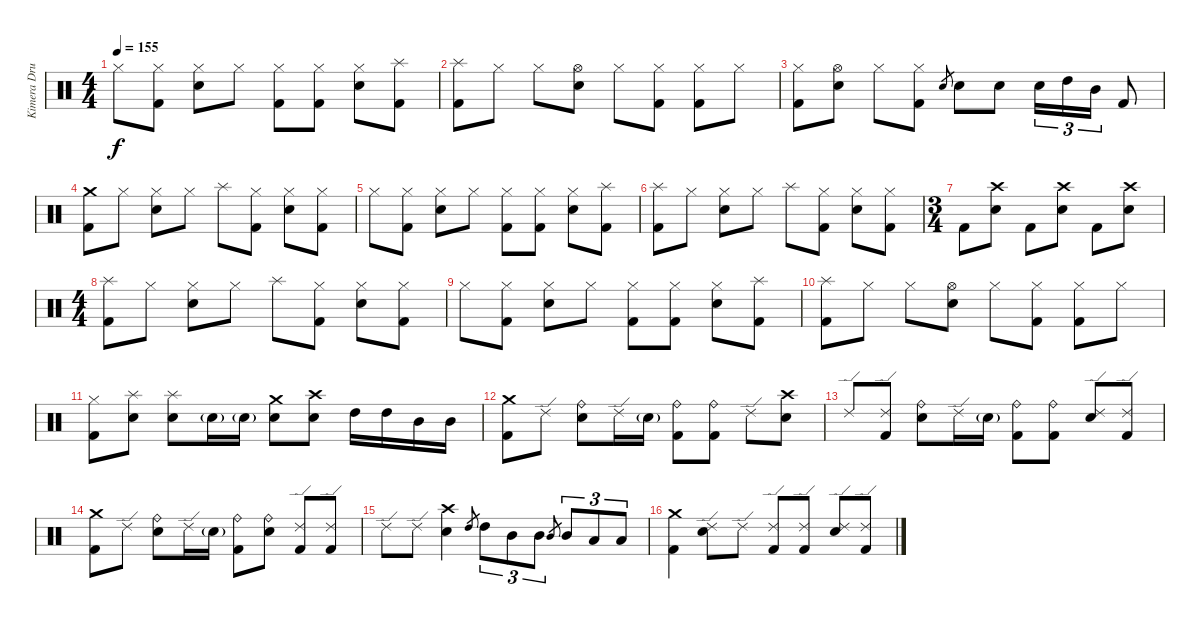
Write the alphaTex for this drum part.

\track ("Kimera Drummer" "Kimera Dru") {instrument percussion}
\staff {score}
\articulation defaults
\ts (4 4)
\tempo 155
\clef neutral
\ks c "Hi-Hat (closed)".8{dy f}
("Hi-Hat (closed)" "Kick (hit) 2").8 ("Hi-Hat (closed)" "Electric Snare (hit)").8 "Hi-Hat (closed)".8 ("Hi-Hat (closed)" "Kick (hit) 2").8 ("Hi-Hat (closed)" "Kick (hit) 2").8 ("Hi-Hat (closed)" "Electric Snare (hit)").8 ("Splash (hit)" "Kick (hit) 2").8 |
("Splash (hit)" "Kick (hit) 2").8 "Hi-Hat (closed)".8 "Hi-Hat (closed)".8 ("Hi-Hat (open)" "Electric Snare (hit)").8 "Hi-Hat (closed)".8 ("Hi-Hat (closed)" "Kick (hit) 2").8 ("Hi-Hat (closed)" "Kick (hit) 2").8 "Hi-Hat (closed)".8 |
("Hi-Hat (closed)" "Kick (hit) 2").8 ("Hi-Hat (open)" "Electric Snare (hit)").8 "Hi-Hat (closed)".8 ("Hi-Hat (closed)" "Kick (hit) 2").8 "Electric Snare (hit)".8{gr} "Electric Snare (hit)".8 "Electric Snare (hit)".8 "Electric Snare (hit)".16{tu (3 2)} "High Tom (hit)".16{tu (3 2)} "Mid Tom (hit)".16{tu (3 2)} "Kick (hit) 2".8 |
("Crash medium (hit)" "Kick (hit) 2").8 "Hi-Hat (closed)".8 ("Hi-Hat (closed)" "Electric Snare (hit)").8 "Hi-Hat (closed)".8 "Splash (hit)".8 ("Hi-Hat (closed)" "Kick (hit) 2").8 ("Hi-Hat (closed)" "Electric Snare (hit)").8 ("Hi-Hat (closed)" "Kick (hit) 2").8 |
"Hi-Hat (closed)".8 ("Hi-Hat (closed)" "Kick (hit) 2").8 ("Hi-Hat (closed)" "Electric Snare (hit)").8 "Hi-Hat (closed)".8 ("Hi-Hat (closed)" "Kick (hit) 2").8 ("Hi-Hat (closed)" "Kick (hit) 2").8 ("Hi-Hat (closed)" "Electric Snare (hit)").8 ("Splash (hit)" "Kick (hit) 2").8 |
("Splash (hit)" "Kick (hit) 2").8 "Hi-Hat (closed)".8 ("Hi-Hat (closed)" "Electric Snare (hit)").8 "Hi-Hat (closed)".8 "Splash (hit)".8 ("Hi-Hat (closed)" "Kick (hit) 2").8 ("Hi-Hat (closed)" "Electric Snare (hit)").8 ("Hi-Hat (closed)" "Kick (hit) 2").8 |
\ts (3 4)
"Kick (hit) 2".8 ("Crash high (hit)" "Electric Snare (hit)").8 "Kick (hit) 2".8 ("Crash high (hit)" "Electric Snare (hit)").8 "Kick (hit) 2".8 ("Crash high (hit)" "Electric Snare (hit)").8 |
\ts (4 4)
("Splash (hit)" "Kick (hit) 2").8 "Hi-Hat (closed)".8 ("Hi-Hat (closed)" "Electric Snare (hit)").8 "Hi-Hat (closed)".8 "Splash (hit)".8 ("Hi-Hat (closed)" "Kick (hit) 2").8 ("Hi-Hat (closed)" "Electric Snare (hit)").8 ("Hi-Hat (closed)" "Kick (hit) 2").8 |
"Hi-Hat (closed)".8 ("Hi-Hat (closed)" "Kick (hit) 2").8 ("Hi-Hat (closed)" "Electric Snare (hit)").8 "Hi-Hat (closed)".8 ("Hi-Hat (closed)" "Kick (hit) 2").8 ("Hi-Hat (closed)" "Kick (hit) 2").8 ("Hi-Hat (closed)" "Electric Snare (hit)").8 ("Splash (hit)" "Kick (hit) 2").8 |
("Splash (hit)" "Kick (hit) 2").8 "Hi-Hat (closed)".8 "Hi-Hat (closed)".8 ("Hi-Hat (open)" "Electric Snare (hit)").8 "Hi-Hat (closed)".8 ("Hi-Hat (closed)" "Kick (hit) 2").8 ("Hi-Hat (closed)" "Kick (hit) 2").8 "Hi-Hat (closed)".8 |
("Hi-Hat (closed)" "Kick (hit) 2").8 ("Splash (hit)" "Electric Snare (hit)").8 ("Splash (hit)" "Electric Snare (hit)").8 "Electric Snare (hit)"{g}.16 "Electric Snare (hit)"{g}.16 ("Crash medium (hit)" "Electric Snare (hit)").8 ("Crash high (hit)" "Electric Snare (hit)").8 "High Tom (hit)".16 "High Tom (hit)".16 "Mid Tom (hit)".16 "Mid Tom (hit)".16 |
("Crash medium (hit)" "Kick (hit) 2").8 "Ride (edge) 2".8 ("Ride (bell)" "Electric Snare (hit)").8 "Ride (edge) 2".16 "Electric Snare (hit)"{g}.16 ("Ride (bell)" "Kick (hit) 2").8 ("Ride (bell)" "Kick (hit) 2").8 "Ride (edge) 2".8 ("Crash high (hit)" "Electric Snare (hit)").8 |
"Ride (edge) 2".8 ("Ride (edge) 2" "Kick (hit) 2").8 ("Ride (bell)" "Electric Snare (hit)").8 "Ride (edge) 2".16 "Electric Snare (hit)"{g}.16 ("Ride (bell)" "Kick (hit) 2").8 ("Ride (bell)" "Kick (hit) 2").8 ("Ride (edge) 2" "Electric Snare (hit)").8 ("Ride (edge) 2" "Kick (hit) 2").8 |
("Crash medium (hit)" "Kick (hit) 2").8 "Ride (edge) 2".8 ("Ride (bell)" "Electric Snare (hit)").8 "Ride (edge) 2".16 "Electric Snare (hit)"{g}.16 ("Ride (bell)" "Kick (hit) 2").8 ("Ride (bell)" "Electric Snare (hit)").8 ("Ride (edge) 2" "Kick (hit) 2").8 ("Ride (edge) 2" "Kick (hit) 2").8 |
"Ride (edge) 2".8 "Ride (edge) 2".8 ("Crash high (hit)" "Electric Snare (hit)").4 "High Tom (hit)".8{gr} "High Tom (hit)".8{tu (3 2)} "Mid Tom (hit)".8{tu (3 2)} "Mid Tom (hit)".8{tu (3 2)} "Mid Tom (hit)".8{gr} "Mid Tom (hit)".8{tu (3 2)} "Low Floor Tom (hit)".8{tu (3 2)} "Low Floor Tom (hit)".8{tu (3 2)} |
("Crash medium (hit)" "Kick (hit) 2").4 ("Ride (edge) 2" "Electric Snare (hit)").8 "Ride (edge) 2".8 ("Ride (edge) 2" "Kick (hit) 2").8 ("Ride (edge) 2" "Kick (hit) 2").8 ("Ride (edge) 2" "Electric Snare (hit)").8 ("Ride (edge) 2" "Kick (hit) 2").8
